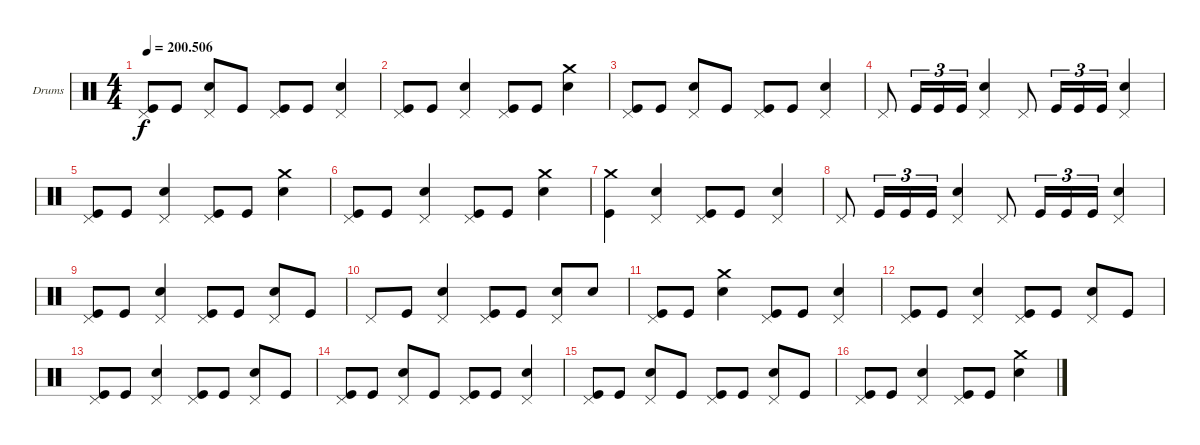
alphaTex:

\bracketExtendMode groupsimilarinstruments
\firstSystemTrackNameOrientation horizontal
\otherSystemsTrackNameOrientation horizontal
\track ("Drums" "Drums") {instrument percussion}
\staff {score}
\articulation defaults
\ts (4 4)
\tempo
200.506
\accidentals auto
\clef neutral
\ottava regular
\simile none
\ks c
("Pedal Hi-Hat (hit)" "Kick (hit)").8{dy f} "Kick (hit)".8 ("Pedal Hi-Hat (hit)" "Snare (hit) 2").8 "Kick (hit)".8 ("Pedal Hi-Hat (hit)" "Kick (hit)").8 "Kick (hit)".8 ("Pedal Hi-Hat (hit)" "Snare (hit) 2").4 |
("Pedal Hi-Hat (hit)" "Kick (hit)").8 "Kick (hit)".8 ("Pedal Hi-Hat (hit)" "Snare (hit) 2").4 ("Pedal Hi-Hat (hit)" "Kick (hit)").8 "Kick (hit)".8 ("Crash medium (hit)" "Snare (hit) 2").4 |
("Pedal Hi-Hat (hit)" "Kick (hit)").8 "Kick (hit)".8 ("Pedal Hi-Hat (hit)" "Snare (hit) 2").8 "Kick (hit)".8 ("Pedal Hi-Hat (hit)" "Kick (hit)").8 "Kick (hit)".8 ("Pedal Hi-Hat (hit)" "Snare (hit) 2").4 |
"Pedal Hi-Hat (hit)".8 "Kick (hit)".16{tu (3 2)} "Kick (hit)".16{tu (3 2)} "Kick (hit)".16{tu (3 2)} ("Pedal Hi-Hat (hit)" "Snare (hit) 2").4 "Pedal Hi-Hat (hit)".8 "Kick (hit)".16{tu (3 2)} "Kick (hit)".16{tu (3 2)} "Kick (hit)".16{tu (3 2)} ("Pedal Hi-Hat (hit)" "Snare (hit) 2").4 |
("Pedal Hi-Hat (hit)" "Kick (hit)").8 "Kick (hit)".8 ("Pedal Hi-Hat (hit)" "Snare (hit) 2").4 ("Pedal Hi-Hat (hit)" "Kick (hit)").8 "Kick (hit)".8 ("Crash medium (hit)" "Snare (hit) 2").4 |
("Pedal Hi-Hat (hit)" "Kick (hit)").8 "Kick (hit)".8 ("Pedal Hi-Hat (hit)" "Snare (hit) 2").4 ("Pedal Hi-Hat (hit)" "Kick (hit)").8 "Kick (hit)".8 ("Crash medium (hit)" "Snare (hit) 2").4 |
("Crash medium (hit)" "Kick (hit)").4 ("Pedal Hi-Hat (hit)" "Snare (hit) 2").4 ("Pedal Hi-Hat (hit)" "Kick (hit)").8 "Kick (hit)".8 ("Pedal Hi-Hat (hit)" "Snare (hit) 2").4 |
"Pedal Hi-Hat (hit)".8 "Kick (hit)".16{tu (3 2)} "Kick (hit)".16{tu (3 2)} "Kick (hit)".16{tu (3 2)} ("Pedal Hi-Hat (hit)" "Snare (hit) 2").4 "Pedal Hi-Hat (hit)".8 "Kick (hit)".16{tu (3 2)} "Kick (hit)".16{tu (3 2)} "Kick (hit)".16{tu (3 2)} ("Pedal Hi-Hat (hit)" "Snare (hit) 2").4 |
("Pedal Hi-Hat (hit)" "Kick (hit)").8 "Kick (hit)".8 ("Pedal Hi-Hat (hit)" "Snare (hit) 2").4 ("Pedal Hi-Hat (hit)" "Kick (hit)").8 "Kick (hit)".8 ("Pedal Hi-Hat (hit)" "Snare (hit) 2").8 "Kick (hit)".8 |
"Pedal Hi-Hat (hit)".8 "Kick (hit)".8 ("Pedal Hi-Hat (hit)" "Snare (hit) 2").4 ("Pedal Hi-Hat (hit)" "Kick (hit)").8 "Kick (hit)".8 ("Pedal Hi-Hat (hit)" "Snare (hit) 2").8 "Snare (hit) 2".8 |
("Pedal Hi-Hat (hit)" "Kick (hit)").8 "Kick (hit)".8 ("Crash medium (hit)" "Snare (hit) 2").4 ("Pedal Hi-Hat (hit)" "Kick (hit)").8 "Kick (hit)".8 ("Pedal Hi-Hat (hit)" "Snare (hit) 2").4 |
("Pedal Hi-Hat (hit)" "Kick (hit)").8 "Kick (hit)".8 ("Pedal Hi-Hat (hit)" "Snare (hit) 2").4 ("Pedal Hi-Hat (hit)" "Kick (hit)").8 "Kick (hit)".8 ("Pedal Hi-Hat (hit)" "Snare (hit) 2").8 "Kick (hit)".8 |
("Pedal Hi-Hat (hit)" "Kick (hit)").8 "Kick (hit)".8 ("Pedal Hi-Hat (hit)" "Snare (hit) 2").4 ("Pedal Hi-Hat (hit)" "Kick (hit)").8 "Kick (hit)".8 ("Pedal Hi-Hat (hit)" "Snare (hit) 2").8 "Kick (hit)".8 |
("Pedal Hi-Hat (hit)" "Kick (hit)").8 "Kick (hit)".8 ("Pedal Hi-Hat (hit)" "Snare (hit) 2").8 "Kick (hit)".8 ("Pedal Hi-Hat (hit)" "Kick (hit)").8 "Kick (hit)".8 ("Pedal Hi-Hat (hit)" "Snare (hit) 2").4 |
("Pedal Hi-Hat (hit)" "Kick (hit)").8 "Kick (hit)".8 ("Pedal Hi-Hat (hit)" "Snare (hit) 2").8 "Kick (hit)".8 ("Pedal Hi-Hat (hit)" "Kick (hit)").8 "Kick (hit)".8 ("Pedal Hi-Hat (hit)" "Snare (hit) 2").8 "Kick (hit)".8 |
("Pedal Hi-Hat (hit)" "Kick (hit)").8 "Kick (hit)".8 ("Pedal Hi-Hat (hit)" "Snare (hit) 2").4 ("Pedal Hi-Hat (hit)" "Kick (hit)").8 "Kick (hit)".8 ("Crash medium (hit)" "Snare (hit) 2").4
